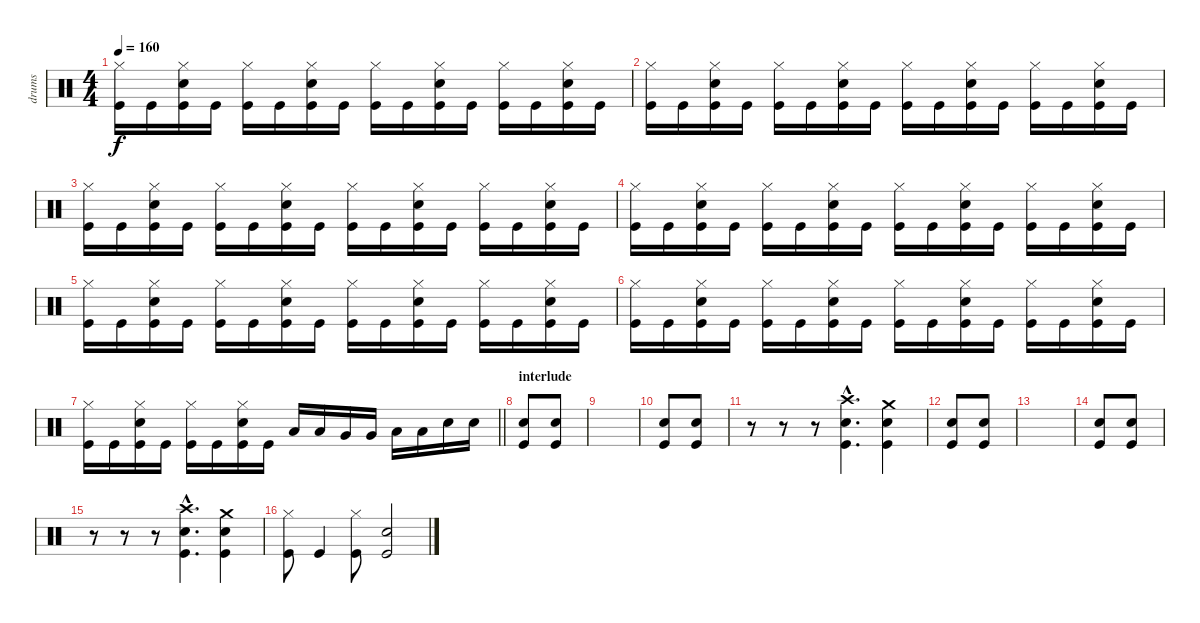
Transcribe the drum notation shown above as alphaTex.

\track ("drums" "drums") {instrument percussion}
\staff {score}
\articulation defaults
\ts (4 4)
\tempo 160
\clef neutral
\ks c
("Kick (hit)" "Hi-Hat (closed)").16{dy f} "Kick (hit)".16 ("Kick (hit)" "Hi-Hat (closed)" "Snare (hit) 2").16 "Kick (hit)".16 ("Kick (hit)" "Hi-Hat (closed)").16 "Kick (hit)".16 ("Kick (hit)" "Hi-Hat (closed)" "Snare (hit) 2").16 "Kick (hit)".16 ("Kick (hit)" "Hi-Hat (closed)").16 "Kick (hit)".16 ("Kick (hit)" "Hi-Hat (closed)" "Snare (hit) 2").16 "Kick (hit)".16 ("Kick (hit)" "Hi-Hat (closed)").16 "Kick (hit)".16 ("Kick (hit)" "Hi-Hat (closed)" "Snare (hit) 2").16 "Kick (hit)".16 |
("Kick (hit)" "Hi-Hat (closed)").16 "Kick (hit)".16 ("Kick (hit)" "Hi-Hat (closed)" "Snare (hit) 2").16 "Kick (hit)".16 ("Kick (hit)" "Hi-Hat (closed)").16 "Kick (hit)".16 ("Kick (hit)" "Hi-Hat (closed)" "Snare (hit) 2").16 "Kick (hit)".16 ("Kick (hit)" "Hi-Hat (closed)").16 "Kick (hit)".16 ("Kick (hit)" "Hi-Hat (closed)" "Snare (hit) 2").16 "Kick (hit)".16 ("Kick (hit)" "Hi-Hat (closed)").16 "Kick (hit)".16 ("Kick (hit)" "Hi-Hat (closed)" "Snare (hit) 2").16 "Kick (hit)".16 |
("Kick (hit)" "Hi-Hat (closed)").16 "Kick (hit)".16 ("Kick (hit)" "Hi-Hat (closed)" "Snare (hit) 2").16 "Kick (hit)".16 ("Kick (hit)" "Hi-Hat (closed)").16 "Kick (hit)".16 ("Kick (hit)" "Hi-Hat (closed)" "Snare (hit) 2").16 "Kick (hit)".16 ("Kick (hit)" "Hi-Hat (closed)").16 "Kick (hit)".16 ("Kick (hit)" "Hi-Hat (closed)" "Snare (hit) 2").16 "Kick (hit)".16 ("Kick (hit)" "Hi-Hat (closed)").16 "Kick (hit)".16 ("Kick (hit)" "Hi-Hat (closed)" "Snare (hit) 2").16 "Kick (hit)".16 |
("Kick (hit)" "Hi-Hat (closed)").16 "Kick (hit)".16 ("Kick (hit)" "Hi-Hat (closed)" "Snare (hit) 2").16 "Kick (hit)".16 ("Kick (hit)" "Hi-Hat (closed)").16 "Kick (hit)".16 ("Kick (hit)" "Hi-Hat (closed)" "Snare (hit) 2").16 "Kick (hit)".16 ("Kick (hit)" "Hi-Hat (closed)").16 "Kick (hit)".16 ("Kick (hit)" "Hi-Hat (closed)" "Snare (hit) 2").16 "Kick (hit)".16 ("Kick (hit)" "Hi-Hat (closed)").16 "Kick (hit)".16 ("Kick (hit)" "Hi-Hat (closed)" "Snare (hit) 2").16 "Kick (hit)".16 |
("Kick (hit)" "Hi-Hat (closed)").16 "Kick (hit)".16 ("Kick (hit)" "Hi-Hat (closed)" "Snare (hit) 2").16 "Kick (hit)".16 ("Kick (hit)" "Hi-Hat (closed)").16 "Kick (hit)".16 ("Kick (hit)" "Hi-Hat (closed)" "Snare (hit) 2").16 "Kick (hit)".16 ("Kick (hit)" "Hi-Hat (closed)").16 "Kick (hit)".16 ("Kick (hit)" "Hi-Hat (closed)" "Snare (hit) 2").16 "Kick (hit)".16 ("Kick (hit)" "Hi-Hat (closed)").16 "Kick (hit)".16 ("Kick (hit)" "Hi-Hat (closed)" "Snare (hit) 2").16 "Kick (hit)".16 |
("Kick (hit)" "Hi-Hat (closed)").16 "Kick (hit)".16 ("Kick (hit)" "Hi-Hat (closed)" "Snare (hit) 2").16 "Kick (hit)".16 ("Kick (hit)" "Hi-Hat (closed)").16 "Kick (hit)".16 ("Kick (hit)" "Hi-Hat (closed)" "Snare (hit) 2").16 "Kick (hit)".16 ("Kick (hit)" "Hi-Hat (closed)").16 "Kick (hit)".16 ("Kick (hit)" "Hi-Hat (closed)" "Snare (hit) 2").16 "Kick (hit)".16 ("Kick (hit)" "Hi-Hat (closed)").16 "Kick (hit)".16 ("Kick (hit)" "Hi-Hat (closed)" "Snare (hit) 2").16 "Kick (hit)".16 |
\barLineRight lightlight
("Kick (hit)" "Hi-Hat (closed)").16 "Kick (hit)".16 ("Kick (hit)" "Hi-Hat (closed)" "Snare (hit) 2").16 "Kick (hit)".16 ("Kick (hit)" "Hi-Hat (closed)").16 "Kick (hit)".16 ("Kick (hit)" "Hi-Hat (closed)" "Snare (hit) 2").16 "Kick (hit)".16 "Low Tom (hit)".16 "Low Tom (hit)".16 "Very Low Tom (hit)".16 "Very Low Tom (hit)".16 "Low Floor Tom (hit)".16 "Low Floor Tom (hit)".16 "Snare (hit) 2".16 "Snare (hit) 2".16 |
\section ("" "interlude")
("Electric Snare (hit)" "Kick (hit)").8 ("Electric Snare (hit)" "Kick (hit)").8 |
|
("Electric Snare (hit)" "Kick (hit)").8 ("Electric Snare (hit)" "Kick (hit)").8 |
r.8 r.8 r.8 ("Kick (hit)"{hac} "Snare (hit) 2"{hac} "Crash high (hit)"{hac}).4{d} ("Kick (hit)" "Snare (hit) 2" "Crash medium (hit)").4 |
("Electric Snare (hit)" "Kick (hit)").8 ("Electric Snare (hit)" "Kick (hit)").8 |
|
("Electric Snare (hit)" "Kick (hit)").8 ("Electric Snare (hit)" "Kick (hit)").8 |
r.8 r.8 r.8 ("Kick (hit)"{hac} "Snare (hit) 2"{hac} "Crash high (hit)"{hac}).4{d} ("Kick (hit)" "Snare (hit) 2" "Crash medium (hit)").4 |
("Kick (hit)" "Hi-Hat (closed)").8 "Kick (hit)".4 ("Kick (hit)" "Hi-Hat (closed)").8 ("Kick (hit)" "Snare (hit) 2").2
